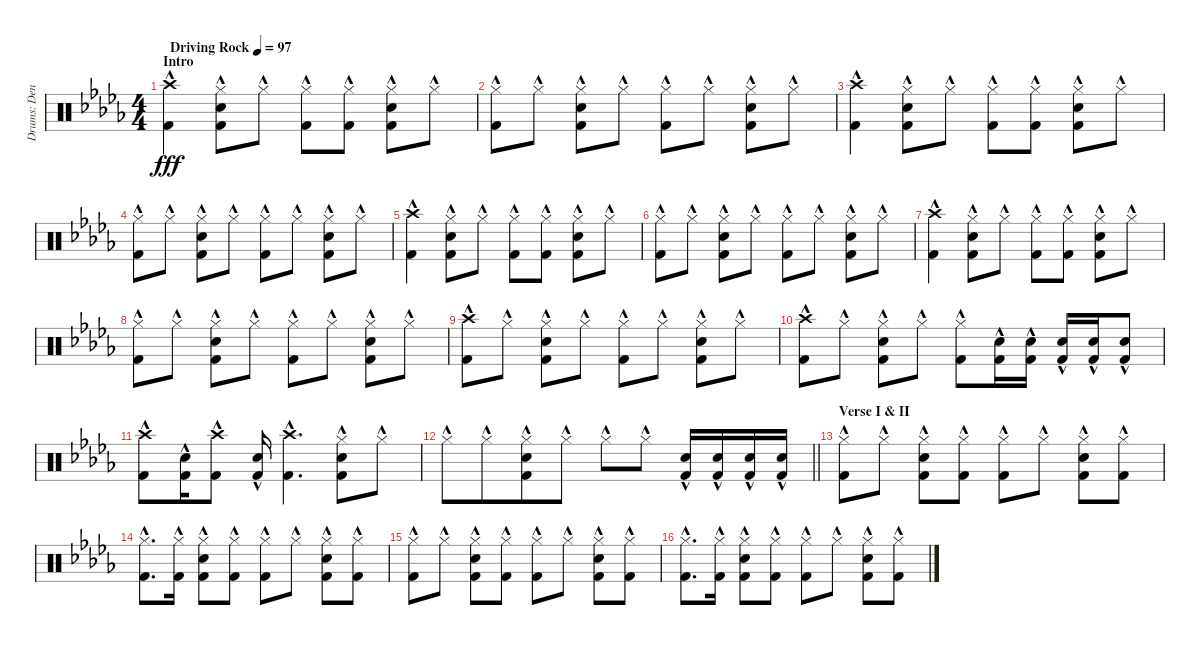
\track ("Drums: Denny" "Drums: Den") {instrument percussion}
\staff {score}
\articulation defaults
\ts (4 4)
\section ("" "Intro")
\tempo (97 "Driving Rock")
\clef neutral
\ks db
("Crash high (hit)"{hac} "Kick (hit) 2"{hac}).4{dy fff} ("Hi-Hat (closed)"{hac} "Snare (hit) 2"{hac} "Kick (hit) 2"{hac}).8 "Hi-Hat (closed)"{hac}.8 ("Hi-Hat (closed)"{hac} "Kick (hit) 2"{hac}).8 ("Hi-Hat (closed)"{hac} "Kick (hit) 2"{hac}).8 ("Hi-Hat (closed)"{hac} "Snare (hit) 2"{hac} "Kick (hit) 2"{hac}).8 "Hi-Hat (closed)"{hac}.8 |
("Hi-Hat (closed)"{hac} "Kick (hit) 2"{hac}).8 "Hi-Hat (closed)"{hac}.8 ("Hi-Hat (closed)"{hac} "Snare (hit) 2"{hac} "Kick (hit) 2"{hac}).8 "Hi-Hat (closed)"{hac}.8 ("Hi-Hat (closed)"{hac} "Kick (hit) 2"{hac}).8 "Hi-Hat (closed)"{hac}.8 ("Hi-Hat (closed)"{hac} "Snare (hit) 2"{hac} "Kick (hit) 2"{hac}).8 "Hi-Hat (closed)"{hac}.8 |
("Crash high (hit)"{hac} "Kick (hit) 2"{hac}).4 ("Hi-Hat (closed)"{hac} "Snare (hit) 2"{hac} "Kick (hit) 2"{hac}).8 "Hi-Hat (closed)"{hac}.8 ("Hi-Hat (closed)"{hac} "Kick (hit) 2"{hac}).8 ("Hi-Hat (closed)"{hac} "Kick (hit) 2"{hac}).8 ("Hi-Hat (closed)"{hac} "Snare (hit) 2"{hac} "Kick (hit) 2"{hac}).8 "Hi-Hat (closed)"{hac}.8 |
("Hi-Hat (closed)"{hac} "Kick (hit) 2"{hac}).8 "Hi-Hat (closed)"{hac}.8 ("Hi-Hat (closed)"{hac} "Snare (hit) 2"{hac} "Kick (hit) 2"{hac}).8 "Hi-Hat (closed)"{hac}.8 ("Hi-Hat (closed)"{hac} "Kick (hit) 2"{hac}).8 "Hi-Hat (closed)"{hac}.8 ("Hi-Hat (closed)"{hac} "Snare (hit) 2"{hac} "Kick (hit) 2"{hac}).8 "Hi-Hat (closed)"{hac}.8 |
("Crash high (hit)"{hac} "Kick (hit) 2"{hac}).4 ("Hi-Hat (closed)"{hac} "Snare (hit) 2"{hac} "Kick (hit) 2"{hac}).8 "Hi-Hat (closed)"{hac}.8 ("Hi-Hat (closed)"{hac} "Kick (hit) 2"{hac}).8 ("Hi-Hat (closed)"{hac} "Kick (hit) 2"{hac}).8 ("Hi-Hat (closed)"{hac} "Snare (hit) 2"{hac} "Kick (hit) 2"{hac}).8 "Hi-Hat (closed)"{hac}.8 |
("Hi-Hat (closed)"{hac} "Kick (hit) 2"{hac}).8 "Hi-Hat (closed)"{hac}.8 ("Hi-Hat (closed)"{hac} "Snare (hit) 2"{hac} "Kick (hit) 2"{hac}).8 "Hi-Hat (closed)"{hac}.8 ("Hi-Hat (closed)"{hac} "Kick (hit) 2"{hac}).8 "Hi-Hat (closed)"{hac}.8 ("Hi-Hat (closed)"{hac} "Snare (hit) 2"{hac} "Kick (hit) 2"{hac}).8 "Hi-Hat (closed)"{hac}.8 |
("Crash high (hit)"{hac} "Kick (hit) 2"{hac}).4 ("Hi-Hat (closed)"{hac} "Snare (hit) 2"{hac} "Kick (hit) 2"{hac}).8 "Hi-Hat (closed)"{hac}.8 ("Hi-Hat (closed)"{hac} "Kick (hit) 2"{hac}).8 ("Hi-Hat (closed)"{hac} "Kick (hit) 2"{hac}).8 ("Hi-Hat (closed)"{hac} "Snare (hit) 2"{hac} "Kick (hit) 2"{hac}).8 "Hi-Hat (closed)"{hac}.8 |
("Hi-Hat (closed)"{hac} "Kick (hit) 2"{hac}).8 "Hi-Hat (closed)"{hac}.8 ("Hi-Hat (closed)"{hac} "Snare (hit) 2"{hac} "Kick (hit) 2"{hac}).8 "Hi-Hat (closed)"{hac}.8 ("Hi-Hat (closed)"{hac} "Kick (hit) 2"{hac}).8 "Hi-Hat (closed)"{hac}.8 ("Hi-Hat (closed)"{hac} "Snare (hit) 2"{hac} "Kick (hit) 2"{hac}).8 "Hi-Hat (closed)"{hac}.8 |
("Crash high (hit)"{hac} "Kick (hit) 2"{hac}).8 "Hi-Hat (closed)"{hac}.8 ("Hi-Hat (closed)"{hac} "Snare (hit) 2"{hac} "Kick (hit) 2"{hac}).8 "Hi-Hat (closed)"{hac}.8 ("Hi-Hat (closed)"{hac} "Kick (hit) 2"{hac}).8 "Hi-Hat (closed)"{hac}.8 ("Hi-Hat (closed)"{hac} "Snare (hit) 2"{hac} "Kick (hit) 2"{hac}).8 "Hi-Hat (closed)"{hac}.8 |
("Crash high (hit)"{hac} "Kick (hit) 2"{hac}).8 "Hi-Hat (closed)"{hac}.8 ("Hi-Hat (closed)"{hac} "Snare (hit) 2"{hac} "Kick (hit) 2"{hac}).8 "Hi-Hat (closed)"{hac}.8 ("Hi-Hat (closed)"{hac} "Kick (hit) 2"{hac}).8 ("Snare (hit) 2"{hac} "Kick (hit) 2"{hac}).16 ("Snare (hit) 2"{hac} "Kick (hit) 2"{hac}).16 ("Snare (hit) 2"{hac} "Kick (hit) 2"{hac}).16 ("Snare (hit) 2"{hac} "Kick (hit) 2"{hac}).16 ("Snare (hit) 2"{hac} "Kick (hit) 2"{hac}).8 |
("Crash high (hit)"{hac} "Kick (hit) 2"{hac}).8 ("Snare (hit) 2"{hac} "Kick (hit) 2"{hac}).16 ("Crash high (hit)"{hac} "Kick (hit) 2"{hac}).8 ("Snare (hit) 2"{hac} "Kick (hit) 2"{hac}).16 ("Crash high (hit)"{hac} "Kick (hit) 2"{hac}).4{d} ("Hi-Hat (closed)"{hac} "Snare (hit) 2"{hac} "Kick (hit) 2"{hac}).8 "Hi-Hat (closed)"{hac}.8 |
\barLineRight lightlight "Hi-Hat (closed)"{hac}.8 "Hi-Hat (closed)"{hac}.8{beam merge}
("Hi-Hat (closed)"{hac} "Snare (hit) 2"{hac} "Kick (hit) 2"{hac}).8 "Hi-Hat (closed)"{hac}.8 "Hi-Hat (closed)"{hac}.8 "Hi-Hat (closed)"{hac}.8 ("Snare (hit) 2"{hac} "Kick (hit) 2"{hac}).16 ("Snare (hit) 2"{hac} "Kick (hit) 2"{hac}).16 ("Snare (hit) 2"{hac} "Kick (hit) 2"{hac}).16 ("Snare (hit) 2"{hac} "Kick (hit) 2"{hac}).16 |
\section ("" "Verse I & II")
("Hi-Hat (closed)"{hac} "Kick (hit) 2"{hac}).8 "Hi-Hat (closed)"{hac}.8 ("Hi-Hat (closed)"{hac} "Snare (hit) 2"{hac} "Kick (hit) 2"{hac}).8 ("Hi-Hat (closed)"{hac} "Kick (hit) 2"{hac}).8 ("Hi-Hat (closed)"{hac} "Kick (hit) 2"{hac}).8 "Hi-Hat (closed)"{hac}.8 ("Hi-Hat (closed)"{hac} "Snare (hit) 2"{hac} "Kick (hit) 2"{hac}).8 ("Hi-Hat (closed)"{hac} "Kick (hit) 2"{hac}).8 |
("Hi-Hat (closed)"{hac} "Kick (hit) 2"{hac}).8{d} ("Hi-Hat (closed)"{hac} "Kick (hit) 2"{hac}).16 ("Hi-Hat (closed)"{hac} "Snare (hit) 2"{hac} "Kick (hit) 2"{hac}).8 ("Hi-Hat (closed)"{hac} "Kick (hit) 2"{hac}).8 ("Hi-Hat (closed)"{hac} "Kick (hit) 2"{hac}).8 "Hi-Hat (closed)"{hac}.8 ("Hi-Hat (closed)"{hac} "Snare (hit) 2"{hac} "Kick (hit) 2"{hac}).8 ("Hi-Hat (closed)"{hac} "Kick (hit) 2"{hac}).8 |
("Hi-Hat (closed)"{hac} "Kick (hit) 2"{hac}).8 "Hi-Hat (closed)"{hac}.8 ("Hi-Hat (closed)"{hac} "Snare (hit) 2"{hac} "Kick (hit) 2"{hac}).8 ("Hi-Hat (closed)"{hac} "Kick (hit) 2"{hac}).8 ("Hi-Hat (closed)"{hac} "Kick (hit) 2"{hac}).8 "Hi-Hat (closed)"{hac}.8 ("Hi-Hat (closed)"{hac} "Snare (hit) 2"{hac} "Kick (hit) 2"{hac}).8 ("Hi-Hat (closed)"{hac} "Kick (hit) 2"{hac}).8 |
("Hi-Hat (closed)"{hac} "Kick (hit) 2"{hac}).8{d} ("Hi-Hat (closed)"{hac} "Kick (hit) 2"{hac}).16 ("Hi-Hat (closed)"{hac} "Snare (hit) 2"{hac} "Kick (hit) 2"{hac}).8 ("Hi-Hat (closed)"{hac} "Kick (hit) 2"{hac}).8 ("Hi-Hat (closed)"{hac} "Kick (hit) 2"{hac}).8 "Hi-Hat (closed)"{hac}.8 ("Hi-Hat (closed)"{hac} "Snare (hit) 2"{hac} "Kick (hit) 2"{hac}).8 ("Hi-Hat (closed)"{hac} "Kick (hit) 2"{hac}).8
